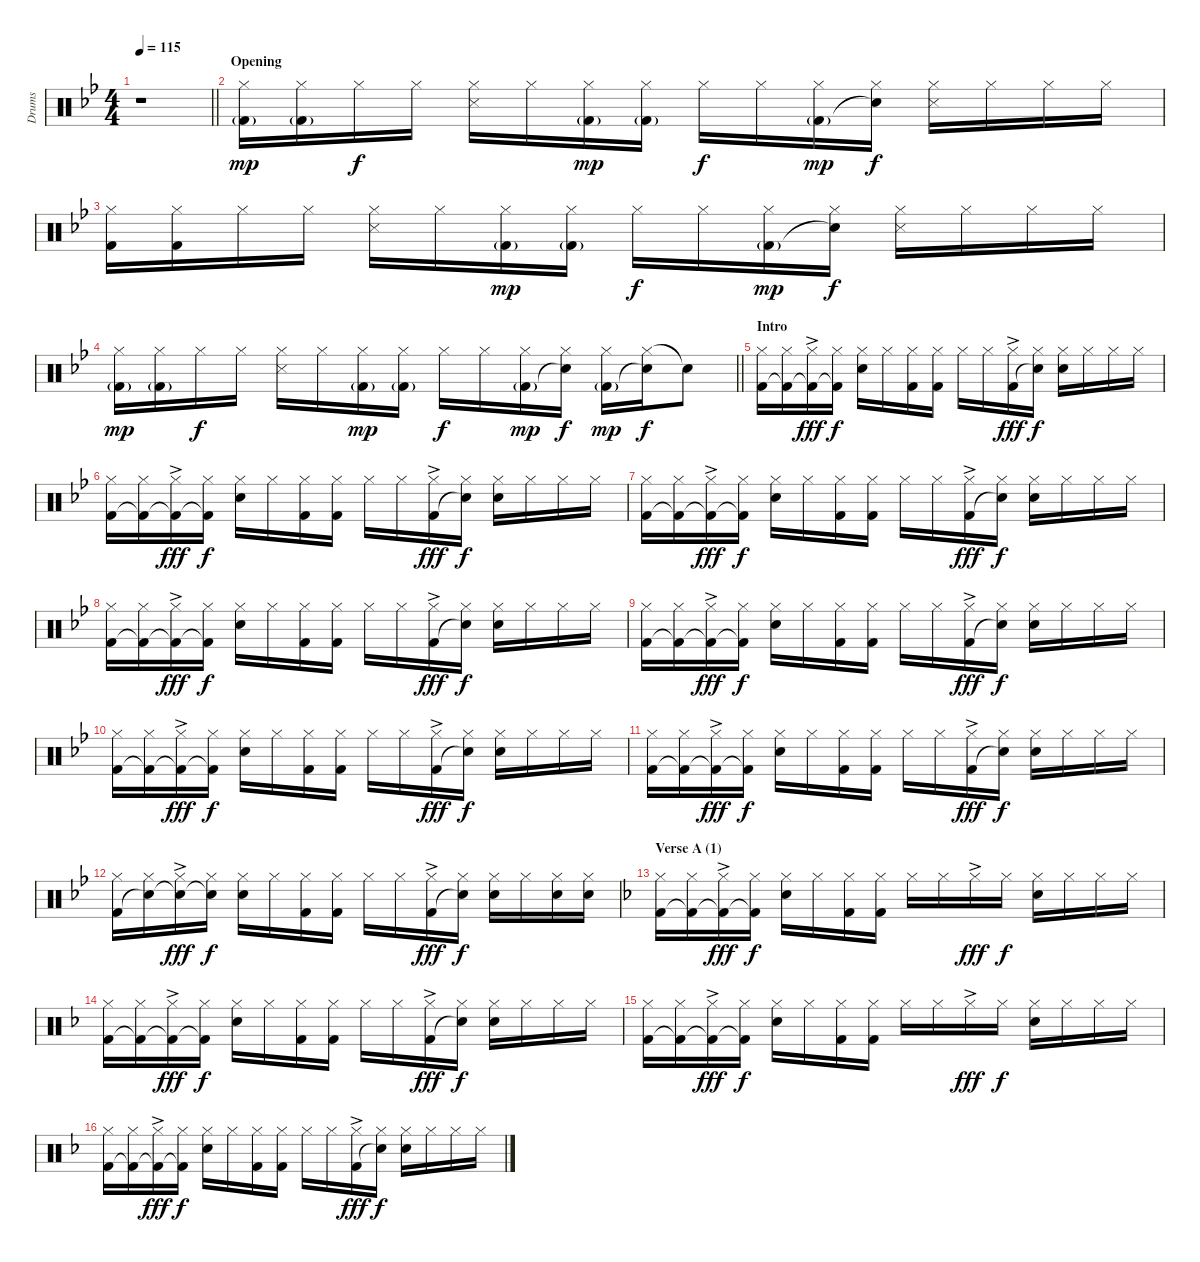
\track ("Drums" "Drums") {instrument percussion}
\staff {score}
\articulation defaults
\ts (4 4)
\tempo 115
\clef neutral
\barLineRight lightlight
\ks bb
r.1{dy mp} |
\section ("" "Opening")
("Hi-Hat (closed)" "Kick (hit) 2"{g}).16 ("Hi-Hat (closed)" "Kick (hit) 2"{g}).16 "Hi-Hat (closed)".16{dy f} "Hi-Hat (closed)".16 ("Hi-Hat (closed)" "Snare (side stick) 3").16 "Hi-Hat (closed)".16 ("Hi-Hat (closed)" "Kick (hit) 2"{g}).16{dy mp} ("Hi-Hat (closed)" "Kick (hit) 2"{g}).16 "Hi-Hat (closed)".16{dy f} "Hi-Hat (closed)".16 ("Hi-Hat (closed)" "Kick (hit) 2"{g}).16{dy mp} ("Hi-Hat (closed)" "Snare (hit)"{t}).16{dy f} ("Hi-Hat (closed)" "Snare (side stick) 3").16 "Hi-Hat (closed)".16 "Hi-Hat (closed)".16 "Hi-Hat (closed)".16 |
("Hi-Hat (closed)" "Kick (hit) 2").16 ("Hi-Hat (closed)" "Kick (hit) 2").16 "Hi-Hat (closed)".16 "Hi-Hat (closed)".16 ("Hi-Hat (closed)" "Snare (side stick) 3").16 "Hi-Hat (closed)".16 ("Hi-Hat (closed)" "Kick (hit) 2"{g}).16{dy mp} ("Hi-Hat (closed)" "Kick (hit) 2"{g}).16 "Hi-Hat (closed)".16{dy f} "Hi-Hat (closed)".16 ("Hi-Hat (closed)" "Kick (hit) 2"{g}).16{dy mp} ("Hi-Hat (closed)" "Snare (hit)"{t}).16{dy f} ("Hi-Hat (closed)" "Snare (side stick) 3").16 "Hi-Hat (closed)".16 "Hi-Hat (closed)".16 "Hi-Hat (closed)".16 |
\barLineRight lightlight
("Hi-Hat (closed)" "Kick (hit) 2"{g}).16{dy mp} ("Hi-Hat (closed)" "Kick (hit) 2"{g}).16 "Hi-Hat (closed)".16{dy f} "Hi-Hat (closed)".16 ("Hi-Hat (closed)" "Snare (side stick) 3").16 "Hi-Hat (closed)".16 ("Hi-Hat (closed)" "Kick (hit) 2"{g}).16{dy mp} ("Hi-Hat (closed)" "Kick (hit) 2"{g}).16 "Hi-Hat (closed)".16{dy f} "Hi-Hat (closed)".16 ("Hi-Hat (closed)" "Kick (hit) 2"{g}).16{dy mp} ("Hi-Hat (closed)" "Snare (hit)"{t}).16{dy f} ("Hi-Hat (closed)" "Kick (hit) 2"{g}).16{dy mp} ("Hi-Hat (closed)" "Snare (hit)"{t}).16{dy f} "Snare (hit)"{t}.8 |
\section ("" "Intro")
("Hi-Hat (closed)" "Kick (hit) 2").16 ("Hi-Hat (closed)" "Kick (hit) 2"{t}).16 ("Hi-Hat (closed)"{ac} "Kick (hit) 2"{t}).16{dy fff} ("Hi-Hat (closed)" "Kick (hit) 2"{t}).16{dy f} ("Hi-Hat (closed)" "Electric Snare (hit)").16 "Hi-Hat (closed)".16 ("Hi-Hat (closed)" "Kick (hit) 2").16 ("Hi-Hat (closed)" "Kick (hit) 2").16 "Hi-Hat (closed)".16 "Hi-Hat (closed)".16 ("Hi-Hat (closed)"{ac} "Kick (hit) 2").16{dy fff} ("Hi-Hat (closed)" "Snare (hit)"{t}).16{dy f} ("Hi-Hat (closed)" "Electric Snare (hit)").16 "Hi-Hat (closed)".16 "Hi-Hat (closed)".16 "Hi-Hat (closed)".16 |
("Hi-Hat (closed)" "Kick (hit) 2").16 ("Hi-Hat (closed)" "Kick (hit) 2"{t}).16 ("Hi-Hat (closed)"{ac} "Kick (hit) 2"{t}).16{dy fff} ("Hi-Hat (closed)" "Kick (hit) 2"{t}).16{dy f} ("Hi-Hat (closed)" "Electric Snare (hit)").16 "Hi-Hat (closed)".16 ("Hi-Hat (closed)" "Kick (hit) 2").16 ("Hi-Hat (closed)" "Kick (hit) 2").16 "Hi-Hat (closed)".16 "Hi-Hat (closed)".16 ("Hi-Hat (closed)"{ac} "Kick (hit) 2").16{dy fff} ("Hi-Hat (closed)" "Snare (hit)"{t}).16{dy f} ("Hi-Hat (closed)" "Electric Snare (hit)").16 "Hi-Hat (closed)".16 "Hi-Hat (closed)".16 "Hi-Hat (closed)".16 |
("Hi-Hat (closed)" "Kick (hit) 2").16 ("Hi-Hat (closed)" "Kick (hit) 2"{t}).16 ("Hi-Hat (closed)"{ac} "Kick (hit) 2"{t}).16{dy fff} ("Hi-Hat (closed)" "Kick (hit) 2"{t}).16{dy f} ("Hi-Hat (closed)" "Electric Snare (hit)").16 "Hi-Hat (closed)".16 ("Hi-Hat (closed)" "Kick (hit) 2").16 ("Hi-Hat (closed)" "Kick (hit) 2").16 "Hi-Hat (closed)".16 "Hi-Hat (closed)".16 ("Hi-Hat (closed)"{ac} "Kick (hit) 2").16{dy fff} ("Hi-Hat (closed)" "Snare (hit)"{t}).16{dy f} ("Hi-Hat (closed)" "Electric Snare (hit)").16 "Hi-Hat (closed)".16 "Hi-Hat (closed)".16 "Hi-Hat (closed)".16 |
("Hi-Hat (closed)" "Kick (hit) 2").16 ("Hi-Hat (closed)" "Kick (hit) 2"{t}).16 ("Hi-Hat (closed)"{ac} "Kick (hit) 2"{t}).16{dy fff} ("Hi-Hat (closed)" "Kick (hit) 2"{t}).16{dy f} ("Hi-Hat (closed)" "Electric Snare (hit)").16 "Hi-Hat (closed)".16 ("Hi-Hat (closed)" "Kick (hit) 2").16 ("Hi-Hat (closed)" "Kick (hit) 2").16 "Hi-Hat (closed)".16 "Hi-Hat (closed)".16 ("Hi-Hat (closed)"{ac} "Kick (hit) 2").16{dy fff} ("Hi-Hat (closed)" "Snare (hit)"{t}).16{dy f} ("Hi-Hat (closed)" "Electric Snare (hit)").16 "Hi-Hat (closed)".16 "Hi-Hat (closed)".16 "Hi-Hat (closed)".16 |
("Hi-Hat (closed)" "Kick (hit) 2").16 ("Hi-Hat (closed)" "Kick (hit) 2"{t}).16 ("Hi-Hat (closed)"{ac} "Kick (hit) 2"{t}).16{dy fff} ("Hi-Hat (closed)" "Kick (hit) 2"{t}).16{dy f} ("Hi-Hat (closed)" "Electric Snare (hit)").16 "Hi-Hat (closed)".16 ("Hi-Hat (closed)" "Kick (hit) 2").16 ("Hi-Hat (closed)" "Kick (hit) 2").16 "Hi-Hat (closed)".16 "Hi-Hat (closed)".16 ("Hi-Hat (closed)"{ac} "Kick (hit) 2").16{dy fff} ("Hi-Hat (closed)" "Snare (hit)"{t}).16{dy f} ("Hi-Hat (closed)" "Electric Snare (hit)").16 "Hi-Hat (closed)".16 "Hi-Hat (closed)".16 "Hi-Hat (closed)".16 |
("Hi-Hat (closed)" "Kick (hit) 2").16 ("Hi-Hat (closed)" "Kick (hit) 2"{t}).16 ("Hi-Hat (closed)"{ac} "Kick (hit) 2"{t}).16{dy fff} ("Hi-Hat (closed)" "Kick (hit) 2"{t}).16{dy f} ("Hi-Hat (closed)" "Electric Snare (hit)").16 "Hi-Hat (closed)".16 ("Hi-Hat (closed)" "Kick (hit) 2").16 ("Hi-Hat (closed)" "Kick (hit) 2").16 "Hi-Hat (closed)".16 "Hi-Hat (closed)".16 ("Hi-Hat (closed)"{ac} "Kick (hit) 2").16{dy fff} ("Hi-Hat (closed)" "Snare (hit)"{t}).16{dy f} ("Hi-Hat (closed)" "Electric Snare (hit)").16 "Hi-Hat (closed)".16 "Hi-Hat (closed)".16 "Hi-Hat (closed)".16 |
("Hi-Hat (closed)" "Kick (hit) 2").16 ("Hi-Hat (closed)" "Kick (hit) 2"{t}).16 ("Hi-Hat (closed)"{ac} "Kick (hit) 2"{t}).16{dy fff} ("Hi-Hat (closed)" "Kick (hit) 2"{t}).16{dy f} ("Hi-Hat (closed)" "Electric Snare (hit)").16 "Hi-Hat (closed)".16 ("Hi-Hat (closed)" "Kick (hit) 2").16 ("Hi-Hat (closed)" "Kick (hit) 2").16 "Hi-Hat (closed)".16 "Hi-Hat (closed)".16 ("Hi-Hat (closed)"{ac} "Kick (hit) 2").16{dy fff} ("Hi-Hat (closed)" "Snare (hit)"{t}).16{dy f} ("Hi-Hat (closed)" "Electric Snare (hit)").16 "Hi-Hat (closed)".16 "Hi-Hat (closed)".16 "Hi-Hat (closed)".16 |
("Hi-Hat (closed)" "Kick (hit) 2").16 ("Hi-Hat (closed)" "Snare (hit)"{t}).16 ("Hi-Hat (closed)"{ac} "Snare (hit)"{t}).16{dy fff} ("Hi-Hat (closed)" "Snare (hit)"{t}).16{dy f} ("Hi-Hat (closed)" "Electric Snare (hit)").16 "Hi-Hat (closed)".16 ("Hi-Hat (closed)" "Kick (hit) 2").16 ("Hi-Hat (closed)" "Kick (hit) 2").16 "Hi-Hat (closed)".16 "Hi-Hat (closed)".16 ("Hi-Hat (closed)"{ac} "Kick (hit) 2").16{dy fff} ("Hi-Hat (closed)" "Snare (hit)"{t}).16{dy f} ("Hi-Hat (closed)" "Electric Snare (hit)").16 "Hi-Hat (closed)".16 ("Hi-Hat (closed)" "Electric Snare (hit)").16 ("Hi-Hat (closed)" "Electric Snare (hit)").16 |
\section ("" "Verse A (1)")
\ks f
("Hi-Hat (closed)" "Kick (hit) 2").16 ("Hi-Hat (closed)" "Kick (hit) 2"{t}).16 ("Hi-Hat (closed)"{ac} "Kick (hit) 2"{t}).16{dy fff} ("Hi-Hat (closed)" "Kick (hit) 2"{t}).16{dy f} ("Hi-Hat (closed)" "Electric Snare (hit)").16 "Hi-Hat (closed)".16 ("Hi-Hat (closed)" "Kick (hit) 2").16 ("Hi-Hat (closed)" "Kick (hit) 2").16 "Hi-Hat (closed)".16 "Hi-Hat (closed)".16 "Hi-Hat (closed)"{ac}.16{dy fff} "Hi-Hat (closed)".16{dy f} ("Hi-Hat (closed)" "Electric Snare (hit)").16 "Hi-Hat (closed)".16 "Hi-Hat (closed)".16 "Hi-Hat (closed)".16 |
("Hi-Hat (closed)" "Kick (hit) 2").16 ("Hi-Hat (closed)" "Kick (hit) 2"{t}).16 ("Hi-Hat (closed)"{ac} "Kick (hit) 2"{t}).16{dy fff} ("Hi-Hat (closed)" "Kick (hit) 2"{t}).16{dy f} ("Hi-Hat (closed)" "Electric Snare (hit)").16 "Hi-Hat (closed)".16 ("Hi-Hat (closed)" "Kick (hit) 2").16 ("Hi-Hat (closed)" "Kick (hit) 2").16 "Hi-Hat (closed)".16 "Hi-Hat (closed)".16 ("Hi-Hat (closed)"{ac} "Kick (hit) 2").16{dy fff} ("Hi-Hat (closed)" "Snare (hit)"{t}).16{dy f} ("Hi-Hat (closed)" "Electric Snare (hit)").16 "Hi-Hat (closed)".16 "Hi-Hat (closed)".16 "Hi-Hat (closed)".16 |
("Hi-Hat (closed)" "Kick (hit) 2").16 ("Hi-Hat (closed)" "Kick (hit) 2"{t}).16 ("Hi-Hat (closed)"{ac} "Kick (hit) 2"{t}).16{dy fff} ("Hi-Hat (closed)" "Kick (hit) 2"{t}).16{dy f} ("Hi-Hat (closed)" "Electric Snare (hit)").16 "Hi-Hat (closed)".16 ("Hi-Hat (closed)" "Kick (hit) 2").16 ("Hi-Hat (closed)" "Kick (hit) 2").16 "Hi-Hat (closed)".16 "Hi-Hat (closed)".16 "Hi-Hat (closed)"{ac}.16{dy fff} "Hi-Hat (closed)".16{dy f} ("Hi-Hat (closed)" "Electric Snare (hit)").16 "Hi-Hat (closed)".16 "Hi-Hat (closed)".16 "Hi-Hat (closed)".16 |
("Hi-Hat (closed)" "Kick (hit) 2").16 ("Hi-Hat (closed)" "Kick (hit) 2"{t}).16 ("Hi-Hat (closed)"{ac} "Kick (hit) 2"{t}).16{dy fff} ("Hi-Hat (closed)" "Kick (hit) 2"{t}).16{dy f} ("Hi-Hat (closed)" "Electric Snare (hit)").16 "Hi-Hat (closed)".16 ("Hi-Hat (closed)" "Kick (hit) 2").16 ("Hi-Hat (closed)" "Kick (hit) 2").16 "Hi-Hat (closed)".16 "Hi-Hat (closed)".16 ("Hi-Hat (closed)"{ac} "Kick (hit) 2").16{dy fff} ("Hi-Hat (closed)" "Snare (hit)"{t}).16{dy f} ("Hi-Hat (closed)" "Electric Snare (hit)").16 "Hi-Hat (closed)".16 "Hi-Hat (closed)".16 "Hi-Hat (closed)".16
